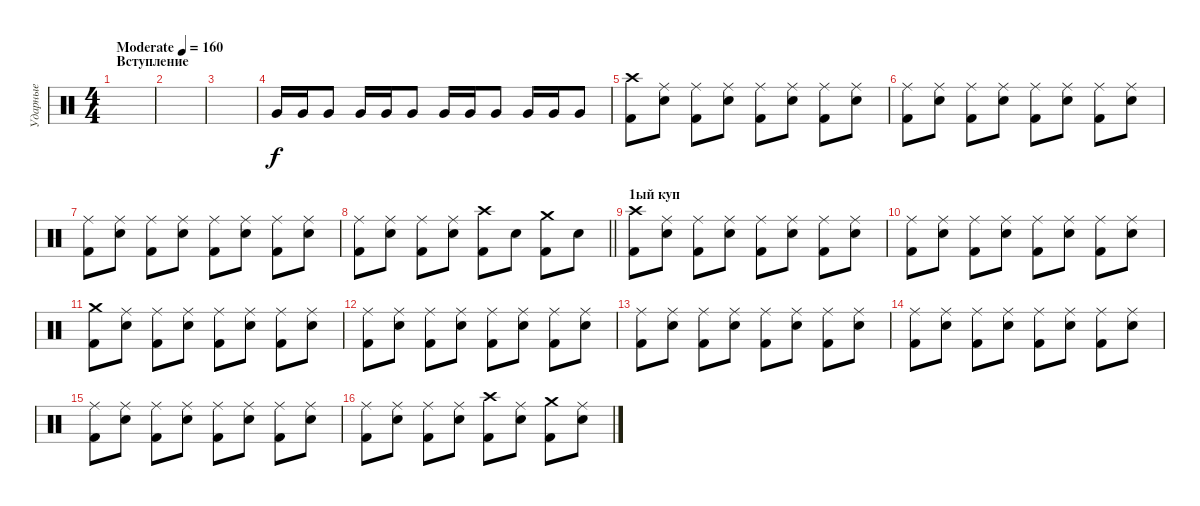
\track ("Ударные" "Ударные") {instrument percussion}
\staff {score}
\articulation defaults
\ts (4 4)
\section ("" "Вступление")
\tempo (160 "Moderate")
\clef neutral
\ks c
|
|
|
"Very Low Tom (hit)".16 "Very Low Tom (hit)".16 "Very Low Tom (hit)".8 "Very Low Tom (hit)".16 "Very Low Tom (hit)".16 "Very Low Tom (hit)".8 "Very Low Tom (hit)".16 "Very Low Tom (hit)".16 "Very Low Tom (hit)".8 "Very Low Tom (hit)".16 "Very Low Tom (hit)".16 "Very Low Tom (hit)".8 |
("Crash high (hit)" "Kick (hit) 2").8 ("Ride (middle)" "Electric Snare (hit)").8 ("Ride (middle)" "Kick (hit) 2").8 ("Ride (middle)" "Electric Snare (hit)").8 ("Ride (middle)" "Kick (hit) 2").8 ("Ride (middle)" "Electric Snare (hit)").8 ("Ride (middle)" "Kick (hit) 2").8 ("Ride (middle)" "Electric Snare (hit)").8 |
("Ride (middle)" "Kick (hit) 2").8 ("Ride (middle)" "Electric Snare (hit)").8 ("Ride (middle)" "Kick (hit) 2").8 ("Ride (middle)" "Electric Snare (hit)").8 ("Ride (middle)" "Kick (hit) 2").8 ("Ride (middle)" "Electric Snare (hit)").8 ("Ride (middle)" "Kick (hit) 2").8 ("Ride (middle)" "Electric Snare (hit)").8 |
("Ride (middle)" "Kick (hit) 2").8 ("Ride (middle)" "Electric Snare (hit)").8 ("Ride (middle)" "Kick (hit) 2").8 ("Ride (middle)" "Electric Snare (hit)").8 ("Ride (middle)" "Kick (hit) 2").8 ("Ride (middle)" "Electric Snare (hit)").8 ("Ride (middle)" "Kick (hit) 2").8 ("Ride (middle)" "Electric Snare (hit)").8 |
\barLineRight lightlight
("Ride (middle)" "Kick (hit) 2").8 ("Ride (middle)" "Electric Snare (hit)").8 ("Ride (middle)" "Kick (hit) 2").8 ("Ride (middle)" "Electric Snare (hit)").8 ("Crash high (hit)" "Kick (hit) 2").8 "Electric Snare (hit)".8 ("Crash medium (hit)" "Kick (hit) 2").8 "Electric Snare (hit)".8 |
\section ("" "1ый куп")
("Crash high (hit)" "Kick (hit) 2").8 ("Ride (middle)" "Electric Snare (hit)").8 ("Ride (middle)" "Kick (hit) 2").8 ("Ride (middle)" "Electric Snare (hit)").8 ("Ride (middle)" "Kick (hit) 2").8 ("Ride (middle)" "Electric Snare (hit)").8 ("Ride (middle)" "Kick (hit) 2").8 ("Ride (middle)" "Electric Snare (hit)").8 |
("Ride (middle)" "Kick (hit) 2").8 ("Ride (middle)" "Electric Snare (hit)").8 ("Ride (middle)" "Kick (hit) 2").8 ("Ride (middle)" "Electric Snare (hit)").8 ("Ride (middle)" "Kick (hit) 2").8 ("Ride (middle)" "Electric Snare (hit)").8 ("Ride (middle)" "Kick (hit) 2").8 ("Ride (middle)" "Electric Snare (hit)").8 |
("Crash medium (hit)" "Kick (hit) 2").8 ("Ride (middle)" "Electric Snare (hit)").8 ("Ride (middle)" "Kick (hit) 2").8 ("Ride (middle)" "Electric Snare (hit)").8 ("Ride (middle)" "Kick (hit) 2").8 ("Ride (middle)" "Electric Snare (hit)").8 ("Ride (middle)" "Kick (hit) 2").8 ("Ride (middle)" "Electric Snare (hit)").8 |
("Ride (middle)" "Kick (hit) 2").8 ("Ride (middle)" "Electric Snare (hit)").8 ("Ride (middle)" "Kick (hit) 2").8 ("Ride (middle)" "Electric Snare (hit)").8 ("Ride (middle)" "Kick (hit) 2").8 ("Ride (middle)" "Electric Snare (hit)").8 ("Ride (middle)" "Kick (hit) 2").8 ("Ride (middle)" "Electric Snare (hit)").8 |
("Ride (middle)" "Kick (hit) 2").8 ("Ride (middle)" "Electric Snare (hit)").8 ("Ride (middle)" "Kick (hit) 2").8 ("Ride (middle)" "Electric Snare (hit)").8 ("Ride (middle)" "Kick (hit) 2").8 ("Ride (middle)" "Electric Snare (hit)").8 ("Ride (middle)" "Kick (hit) 2").8 ("Ride (middle)" "Electric Snare (hit)").8 |
("Ride (middle)" "Kick (hit) 2").8 ("Ride (middle)" "Electric Snare (hit)").8 ("Ride (middle)" "Kick (hit) 2").8 ("Ride (middle)" "Electric Snare (hit)").8 ("Ride (middle)" "Kick (hit) 2").8 ("Ride (middle)" "Electric Snare (hit)").8 ("Ride (middle)" "Kick (hit) 2").8 ("Ride (middle)" "Electric Snare (hit)").8 |
("Ride (middle)" "Kick (hit) 2").8 ("Ride (middle)" "Electric Snare (hit)").8 ("Ride (middle)" "Kick (hit) 2").8 ("Ride (middle)" "Electric Snare (hit)").8 ("Ride (middle)" "Kick (hit) 2").8 ("Ride (middle)" "Electric Snare (hit)").8 ("Ride (middle)" "Kick (hit) 2").8 ("Ride (middle)" "Electric Snare (hit)").8 |
("Ride (middle)" "Kick (hit) 2").8 ("Ride (middle)" "Electric Snare (hit)").8 ("Ride (middle)" "Kick (hit) 2").8 ("Ride (middle)" "Electric Snare (hit)").8 ("Crash high (hit)" "Kick (hit) 2").8 ("Ride (middle)" "Electric Snare (hit)").8 ("Crash medium (hit)" "Kick (hit) 2").8 ("Ride (middle)" "Electric Snare (hit)").8
